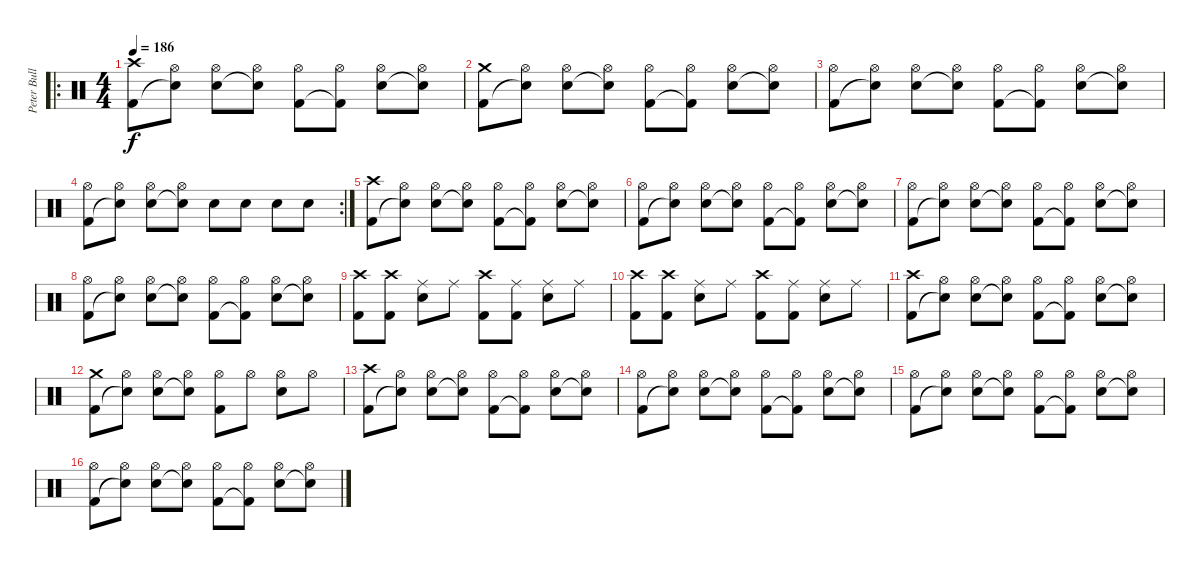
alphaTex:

\track ("Peter Bullrich" "Peter Bull") {instrument percussion}
\staff {score}
\articulation defaults
\ro
\ts (4 4)
\tempo 186
\clef neutral
\ks c
("Crash high (hit)" "Kick (hit) 2").8{dy f} ("Hi-Hat (open)" "Electric Snare (hit)"{t}).8 ("Hi-Hat (open)" "Electric Snare (hit)").8 ("Hi-Hat (open)" "Snare (hit)"{t}).8 ("Hi-Hat (open)" "Kick (hit) 2").8 ("Hi-Hat (open)" "Kick (hit) 2"{t}).8 ("Hi-Hat (open)" "Electric Snare (hit)").8 ("Hi-Hat (open)" "Electric Snare (hit)"{t}).8 |
("Crash medium (hit)" "Kick (hit) 2").8 ("Hi-Hat (open)" "Electric Snare (hit)"{t}).8 ("Hi-Hat (open)" "Electric Snare (hit)").8 ("Hi-Hat (open)" "Snare (hit)"{t}).8 ("Hi-Hat (open)" "Kick (hit) 2").8 ("Hi-Hat (open)" "Kick (hit) 2"{t}).8 ("Hi-Hat (open)" "Electric Snare (hit)").8 ("Hi-Hat (open)" "Electric Snare (hit)"{t}).8 |
("Hi-Hat (open)" "Kick (hit) 2").8 ("Hi-Hat (open)" "Electric Snare (hit)"{t}).8 ("Hi-Hat (open)" "Electric Snare (hit)").8 ("Hi-Hat (open)" "Snare (hit)"{t}).8 ("Hi-Hat (open)" "Kick (hit) 2").8 ("Hi-Hat (open)" "Kick (hit) 2"{t}).8 ("Hi-Hat (open)" "Electric Snare (hit)").8 ("Hi-Hat (open)" "Electric Snare (hit)"{t}).8 |
\rc 2
("Hi-Hat (open)" "Kick (hit) 2").8 ("Hi-Hat (open)" "Electric Snare (hit)"{t}).8 ("Hi-Hat (open)" "Electric Snare (hit)").8 ("Hi-Hat (open)" "Snare (hit)"{t}).8 "Electric Snare (hit)".8 "Electric Snare (hit)".8 "Electric Snare (hit)".8 "Electric Snare (hit)".8 |
("Crash high (hit)" "Kick (hit) 2").8 ("Hi-Hat (open)" "Electric Snare (hit)"{t}).8 ("Hi-Hat (open)" "Electric Snare (hit)").8 ("Hi-Hat (open)" "Snare (hit)"{t}).8 ("Hi-Hat (open)" "Kick (hit) 2").8 ("Hi-Hat (open)" "Kick (hit) 2"{t}).8 ("Hi-Hat (open)" "Electric Snare (hit)").8 ("Hi-Hat (open)" "Electric Snare (hit)"{t}).8 |
("Hi-Hat (open)" "Kick (hit) 2").8 ("Hi-Hat (open)" "Electric Snare (hit)"{t}).8 ("Hi-Hat (open)" "Electric Snare (hit)").8 ("Hi-Hat (open)" "Snare (hit)"{t}).8 ("Hi-Hat (open)" "Kick (hit) 2").8 ("Hi-Hat (open)" "Kick (hit) 2"{t}).8 ("Hi-Hat (open)" "Electric Snare (hit)").8 ("Hi-Hat (open)" "Electric Snare (hit)"{t}).8 |
("Hi-Hat (open)" "Kick (hit) 2").8 ("Hi-Hat (open)" "Electric Snare (hit)"{t}).8 ("Hi-Hat (open)" "Electric Snare (hit)").8 ("Hi-Hat (open)" "Snare (hit)"{t}).8 ("Hi-Hat (open)" "Kick (hit) 2").8 ("Hi-Hat (open)" "Kick (hit) 2"{t}).8 ("Hi-Hat (open)" "Electric Snare (hit)").8 ("Hi-Hat (open)" "Electric Snare (hit)"{t}).8 |
("Hi-Hat (open)" "Kick (hit) 2").8 ("Hi-Hat (open)" "Electric Snare (hit)"{t}).8 ("Hi-Hat (open)" "Electric Snare (hit)").8 ("Hi-Hat (open)" "Snare (hit)"{t}).8 ("Hi-Hat (open)" "Kick (hit) 2").8 ("Hi-Hat (open)" "Kick (hit) 2"{t}).8 ("Hi-Hat (open)" "Electric Snare (hit)").8 ("Hi-Hat (open)" "Electric Snare (hit)"{t}).8 |
("Crash high (hit)" "Kick (hit) 2").8 ("Crash high (hit)" "Kick (hit) 2").8 ("Ride (middle)" "Electric Snare (hit)").8 "Ride (middle)".8 ("Crash high (hit)" "Kick (hit) 2").8 ("Ride (middle)" "Kick (hit) 2").8 ("Ride (middle)" "Electric Snare (hit)").8 "Ride (middle)".8 |
("Crash high (hit)" "Kick (hit) 2").8 ("Crash high (hit)" "Kick (hit) 2").8 ("Ride (middle)" "Electric Snare (hit)").8 "Ride (middle)".8 ("Crash high (hit)" "Kick (hit) 2").8 ("Ride (middle)" "Kick (hit) 2").8 ("Ride (middle)" "Electric Snare (hit)").8 "Ride (middle)".8 |
("Crash high (hit)" "Kick (hit) 2").8 ("Hi-Hat (open)" "Electric Snare (hit)"{t}).8 ("Hi-Hat (open)" "Electric Snare (hit)").8 ("Hi-Hat (open)" "Snare (hit)"{t}).8 ("Hi-Hat (open)" "Kick (hit) 2").8 ("Hi-Hat (open)" "Kick (hit) 2"{t}).8 ("Hi-Hat (open)" "Electric Snare (hit)").8 ("Hi-Hat (open)" "Electric Snare (hit)"{t}).8 |
("Crash medium (hit)" "Kick (hit) 2").8 ("Hi-Hat (open)" "Electric Snare (hit)"{t}).8 ("Hi-Hat (open)" "Electric Snare (hit)").8 ("Hi-Hat (open)" "Snare (hit)"{t}).8 ("Hi-Hat (open)" "Kick (hit) 2").8 "Hi-Hat (open)".8 ("Hi-Hat (open)" "Electric Snare (hit)").8 "Hi-Hat (open)".8 |
("Crash high (hit)" "Kick (hit) 2").8 ("Hi-Hat (open)" "Electric Snare (hit)"{t}).8 ("Hi-Hat (open)" "Electric Snare (hit)").8 ("Hi-Hat (open)" "Snare (hit)"{t}).8 ("Hi-Hat (open)" "Kick (hit) 2").8 ("Hi-Hat (open)" "Kick (hit) 2"{t}).8 ("Hi-Hat (open)" "Electric Snare (hit)").8 ("Hi-Hat (open)" "Electric Snare (hit)"{t}).8 |
("Hi-Hat (open)" "Kick (hit) 2").8 ("Hi-Hat (open)" "Electric Snare (hit)"{t}).8 ("Hi-Hat (open)" "Electric Snare (hit)").8 ("Hi-Hat (open)" "Snare (hit)"{t}).8 ("Hi-Hat (open)" "Kick (hit) 2").8 ("Hi-Hat (open)" "Kick (hit) 2"{t}).8 ("Hi-Hat (open)" "Electric Snare (hit)").8 ("Hi-Hat (open)" "Electric Snare (hit)"{t}).8 |
("Hi-Hat (open)" "Kick (hit) 2").8 ("Hi-Hat (open)" "Electric Snare (hit)"{t}).8 ("Hi-Hat (open)" "Electric Snare (hit)").8 ("Hi-Hat (open)" "Snare (hit)"{t}).8 ("Hi-Hat (open)" "Kick (hit) 2").8 ("Hi-Hat (open)" "Kick (hit) 2"{t}).8 ("Hi-Hat (open)" "Electric Snare (hit)").8 ("Hi-Hat (open)" "Electric Snare (hit)"{t}).8 |
("Hi-Hat (open)" "Kick (hit) 2").8 ("Hi-Hat (open)" "Electric Snare (hit)"{t}).8 ("Hi-Hat (open)" "Electric Snare (hit)").8 ("Hi-Hat (open)" "Snare (hit)"{t}).8 ("Hi-Hat (open)" "Kick (hit) 2").8 ("Hi-Hat (open)" "Kick (hit) 2"{t}).8 ("Hi-Hat (open)" "Electric Snare (hit)").8 ("Hi-Hat (open)" "Electric Snare (hit)"{t}).8
